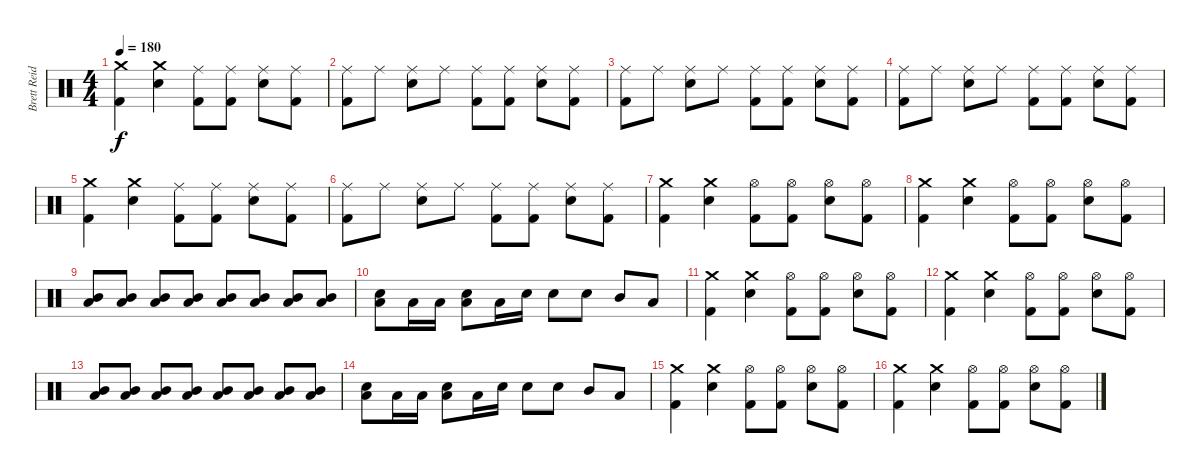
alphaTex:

\track ("Brett Reid" "Brett Reid") {instrument percussion}
\staff {score}
\articulation defaults
\ts (4 4)
\tempo 180
\clef neutral
\ks c
("Crash medium (hit)" "Kick (hit) 2").4{dy f} ("Crash medium (hit)" "Snare (hit) 2").4 ("Ride (middle)" "Kick (hit) 2").8 ("Ride (middle)" "Kick (hit) 2").8 ("Ride (middle)" "Snare (hit) 2").8 ("Ride (middle)" "Kick (hit) 2").8 |
("Ride (middle)" "Kick (hit) 2").8 "Ride (middle)".8 ("Ride (middle)" "Snare (hit) 2").8 "Ride (middle)".8 ("Ride (middle)" "Kick (hit) 2").8 ("Ride (middle)" "Kick (hit) 2").8 ("Ride (middle)" "Snare (hit) 2").8 ("Ride (middle)" "Kick (hit) 2").8 |
("Ride (middle)" "Kick (hit) 2").8 "Ride (middle)".8 ("Ride (middle)" "Snare (hit) 2").8 "Ride (middle)".8 ("Ride (middle)" "Kick (hit) 2").8 ("Ride (middle)" "Kick (hit) 2").8 ("Ride (middle)" "Snare (hit) 2").8 ("Ride (middle)" "Kick (hit) 2").8 |
("Ride (middle)" "Kick (hit) 2").8 "Ride (middle)".8 ("Ride (middle)" "Snare (hit) 2").8 "Ride (middle)".8 ("Ride (middle)" "Kick (hit) 2").8 ("Ride (middle)" "Kick (hit) 2").8 ("Ride (middle)" "Snare (hit) 2").8 ("Ride (middle)" "Kick (hit) 2").8 |
("Crash medium (hit)" "Kick (hit) 2").4 ("Crash medium (hit)" "Snare (hit) 2").4 ("Ride (middle)" "Kick (hit) 2").8 ("Ride (middle)" "Kick (hit) 2").8 ("Ride (middle)" "Snare (hit) 2").8 ("Ride (middle)" "Kick (hit) 2").8 |
("Ride (middle)" "Kick (hit) 2").8 "Ride (middle)".8 ("Ride (middle)" "Snare (hit) 2").8 "Ride (middle)".8 ("Ride (middle)" "Kick (hit) 2").8 ("Ride (middle)" "Kick (hit) 2").8 ("Ride (middle)" "Snare (hit) 2").8 ("Ride (middle)" "Kick (hit) 2").8 |
("Crash medium (hit)" "Kick (hit) 2").4 ("Crash medium (hit)" "Snare (hit) 2").4 ("Hi-Hat (open)" "Kick (hit) 2").8 ("Hi-Hat (open)" "Kick (hit) 2").8 ("Hi-Hat (open)" "Snare (hit) 2").8 ("Hi-Hat (open)" "Kick (hit) 2").8 |
("Crash medium (hit)" "Kick (hit) 2").4 ("Crash medium (hit)" "Snare (hit) 2").4 ("Hi-Hat (open)" "Kick (hit) 2").8 ("Hi-Hat (open)" "Kick (hit) 2").8 ("Hi-Hat (open)" "Snare (hit) 2").8 ("Hi-Hat (open)" "Kick (hit) 2").8 |
("Low Floor Tom (hit)" "Mid Tom (hit)").8 ("Low Floor Tom (hit)" "Mid Tom (hit)").8 ("Low Floor Tom (hit)" "Mid Tom (hit)").8 ("Low Floor Tom (hit)" "Mid Tom (hit)").8 ("Low Floor Tom (hit)" "Mid Tom (hit)").8 ("Low Floor Tom (hit)" "Mid Tom (hit)").8 ("Low Floor Tom (hit)" "Mid Tom (hit)").8 ("Low Floor Tom (hit)" "Mid Tom (hit)").8 |
("Low Floor Tom (hit)" "Snare (hit) 2").8 "Low Floor Tom (hit)".16 "Low Floor Tom (hit)".16 ("Low Floor Tom (hit)" "Snare (hit) 2").8 "Low Floor Tom (hit)".16 "Snare (hit) 2".16 "Snare (hit) 2".8 "Snare (hit) 2".8 "Mid Tom (hit)".8 "Low Floor Tom (hit)".8 |
("Crash medium (hit)" "Kick (hit) 2").4 ("Crash medium (hit)" "Snare (hit) 2").4 ("Hi-Hat (open)" "Kick (hit) 2").8 ("Hi-Hat (open)" "Kick (hit) 2").8 ("Hi-Hat (open)" "Snare (hit) 2").8 ("Hi-Hat (open)" "Kick (hit) 2").8 |
("Crash medium (hit)" "Kick (hit) 2").4 ("Crash medium (hit)" "Snare (hit) 2").4 ("Hi-Hat (open)" "Kick (hit) 2").8 ("Hi-Hat (open)" "Kick (hit) 2").8 ("Hi-Hat (open)" "Snare (hit) 2").8 ("Hi-Hat (open)" "Kick (hit) 2").8 |
("Low Floor Tom (hit)" "Mid Tom (hit)").8 ("Low Floor Tom (hit)" "Mid Tom (hit)").8 ("Low Floor Tom (hit)" "Mid Tom (hit)").8 ("Low Floor Tom (hit)" "Mid Tom (hit)").8 ("Low Floor Tom (hit)" "Mid Tom (hit)").8 ("Low Floor Tom (hit)" "Mid Tom (hit)").8 ("Low Floor Tom (hit)" "Mid Tom (hit)").8 ("Low Floor Tom (hit)" "Mid Tom (hit)").8 |
("Low Floor Tom (hit)" "Snare (hit) 2").8 "Low Floor Tom (hit)".16 "Low Floor Tom (hit)".16 ("Low Floor Tom (hit)" "Snare (hit) 2").8 "Low Floor Tom (hit)".16 "Snare (hit) 2".16 "Snare (hit) 2".8 "Snare (hit) 2".8 "Mid Tom (hit)".8 "Low Floor Tom (hit)".8 |
("Crash medium (hit)" "Kick (hit) 2").4 ("Crash medium (hit)" "Snare (hit) 2").4 ("Hi-Hat (open)" "Kick (hit) 2").8 ("Hi-Hat (open)" "Kick (hit) 2").8 ("Hi-Hat (open)" "Snare (hit) 2").8 ("Hi-Hat (open)" "Kick (hit) 2").8 |
("Crash medium (hit)" "Kick (hit) 2").4 ("Crash medium (hit)" "Snare (hit) 2").4 ("Hi-Hat (open)" "Kick (hit) 2").8 ("Hi-Hat (open)" "Kick (hit) 2").8 ("Hi-Hat (open)" "Snare (hit) 2").8 ("Hi-Hat (open)" "Kick (hit) 2").8
